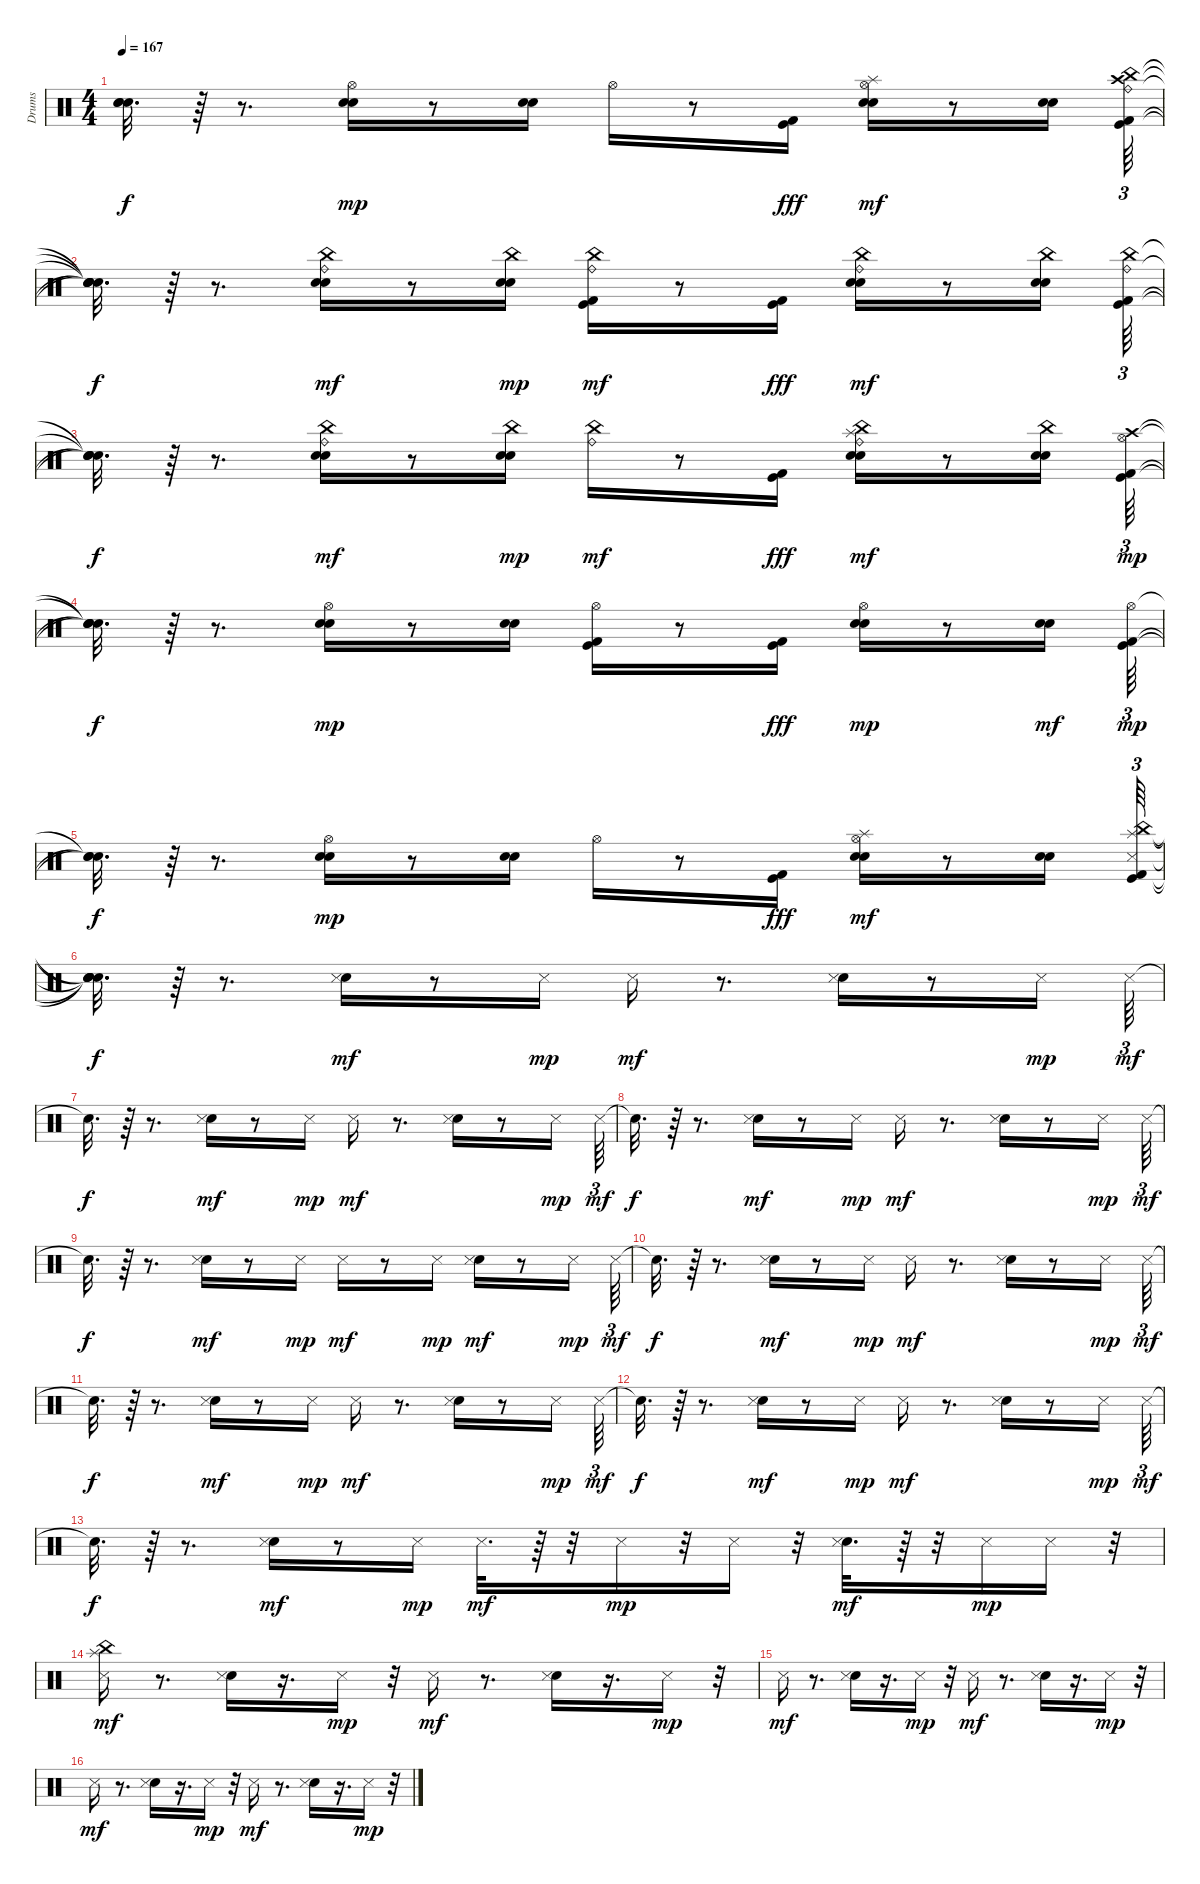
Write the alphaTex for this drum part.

\track ("Drums" "Drums") {instrument percussion}
\staff {score}
\articulation defaults
\ts (4 4)
\tempo 167
\clef neutral
\ks c
("Snare (hit)"{t} "Snare (hit)"{t} "Snare (hit)"{t}).32{d dy f} r.64 r.8{d} ("Snare (hit) 2" "Hand Clap (hit)" "Hi-Hat (open)").16{dy mp} r.8 ("Snare (hit) 2" "Hand Clap (hit)").16 "Hi-Hat (open)".16 r.8 ("Kick (hit) 2" "Kick (hit)").16{dy fff} ("Snare (hit) 2" "Hand Clap (hit)" "Hi-Hat (open)" "Splash (hit)").16{dy mf} r.8 ("Snare (hit) 2" "Hand Clap (hit)").16 ("Kick (hit) 2" "Kick (hit)" "China (hit)" "Ride (bell)" "Crash high (hit)").64{tu (3 2)} |
("Snare (hit)"{t} "Snare (hit)"{t} "Snare (hit)"{t} "Snare (hit)"{t} "Snare (hit)"{t}).32{d dy f} r.64 r.8{d} ("Snare (hit) 2" "Hand Clap (hit)" "China (hit)" "Ride (bell)").16{dy mf} r.8 ("Snare (hit) 2" "Hand Clap (hit)" "China (hit)").16{dy mp} ("Kick (hit) 2" "Kick (hit)" "China (hit)" "Ride (bell)").16{dy mf} r.8 ("Kick (hit) 2" "Kick (hit)").16{dy fff} ("Snare (hit) 2" "Hand Clap (hit)" "China (hit)" "Ride (bell)").16{dy mf} r.8 ("Snare (hit) 2" "China (hit)" "Hand Clap (hit)").16 ("Kick (hit) 2" "Kick (hit)" "China (hit)" "Ride (bell)").64{tu (3 2)} |
("Snare (hit)"{t} "Snare (hit)"{t} "Snare (hit)"{t} "Snare (hit)"{t}).32{d dy f} r.64 r.8{d} ("Snare (hit) 2" "Hand Clap (hit)" "China (hit)" "Ride (bell)").16{dy mf} r.8 ("Snare (hit) 2" "Hand Clap (hit)" "China (hit)").16{dy mp} ("China (hit)" "Ride (bell)").16{dy mf} r.8 ("Kick (hit) 2" "Kick (hit)").16{dy fff} ("Snare (hit) 2" "Hand Clap (hit)" "China (hit)" "Ride (bell)" "Splash (hit)").16{dy mf} r.8 ("Snare (hit) 2" "China (hit)" "Hand Clap (hit)").16 ("Kick (hit) 2" "Kick (hit)" "Crash high (hit)" "Hi-Hat (open)").64{tu (3 2) dy mp} |
("Snare (hit)"{t} "Snare (hit)"{t} "Snare (hit)"{t} "Snare (hit)"{t}).32{d dy f} r.64 r.8{d} ("Snare (hit) 2" "Hand Clap (hit)" "Hi-Hat (open)").16{dy mp} r.8 ("Snare (hit) 2" "Hand Clap (hit)").16 ("Kick (hit) 2" "Kick (hit)" "Hi-Hat (open)").16 r.8 ("Kick (hit) 2" "Kick (hit)").16{dy fff} ("Snare (hit) 2" "Hand Clap (hit)" "Hi-Hat (open)").16{dy mp} r.8 ("Snare (hit) 2" "Hand Clap (hit)").16{dy mf} ("Kick (hit) 2" "Kick (hit)" "Hi-Hat (open)").64{tu (3 2) dy mp} |
("Snare (hit)"{t} "Snare (hit)"{t} "Snare (hit)"{t}).32{d dy f} r.64 r.8{d} ("Snare (hit) 2" "Hand Clap (hit)" "Hi-Hat (open)").16{dy mp} r.8 ("Snare (hit) 2" "Hand Clap (hit)").16 "Hi-Hat (open)".16 r.8 ("Kick (hit) 2" "Kick (hit)").16{dy fff} ("Snare (hit) 2" "Hand Clap (hit)" "Hi-Hat (open)" "Splash (hit)").16{dy mf} r.8 ("Snare (hit) 2" "Hand Clap (hit)").16 ("Kick (hit) 2" "Kick (hit)" "Splash (hit)" "China (hit)" "Snare (side stick) 3").64{tu (3 2)} |
("Snare (hit)"{t} "Snare (hit)"{t} "Snare (hit)"{t} "Snare (hit)"{t} "Snare (hit)"{t}).32{d dy f} r.64 r.8{d} ("Hand Clap (hit)" "Snare (side stick) 3").16{dy mf} r.8 "Snare (side stick) 3".16{dy mp} "Snare (side stick) 3".16{dy mf} r.8{d} ("Hand Clap (hit)" "Snare (side stick) 3").16 r.8 "Snare (side stick) 3".16{dy mp} "Snare (side stick) 3".64{tu (3 2) dy mf} |
"Snare (hit)"{t}.32{d dy f} r.64 r.8{d} ("Hand Clap (hit)" "Snare (side stick) 3").16{dy mf} r.8 "Snare (side stick) 3".16{dy mp} "Snare (side stick) 3".16{dy mf} r.8{d} ("Hand Clap (hit)" "Snare (side stick) 3").16 r.8 "Snare (side stick) 3".16{dy mp} "Snare (side stick) 3".64{tu (3 2) dy mf} |
"Snare (hit)"{t}.32{d dy f} r.64 r.8{d} ("Hand Clap (hit)" "Snare (side stick) 3").16{dy mf} r.8 "Snare (side stick) 3".16{dy mp} "Snare (side stick) 3".16{dy mf} r.8{d} ("Hand Clap (hit)" "Snare (side stick) 3").16 r.8 "Snare (side stick) 3".16{dy mp} "Snare (side stick) 3".64{tu (3 2) dy mf} |
"Snare (hit)"{t}.32{d dy f} r.64 r.8{d} ("Hand Clap (hit)" "Snare (side stick) 3").16{dy mf} r.8 "Snare (side stick) 3".16{dy mp} "Snare (side stick) 3".16{dy mf} r.8 "Snare (side stick) 3".16{dy mp} ("Hand Clap (hit)" "Snare (side stick) 3").16{dy mf} r.8 "Snare (side stick) 3".16{dy mp} "Snare (side stick) 3".64{tu (3 2) dy mf} |
"Snare (hit)"{t}.32{d dy f} r.64 r.8{d} ("Hand Clap (hit)" "Snare (side stick) 3").16{dy mf} r.8 "Snare (side stick) 3".16{dy mp} "Snare (side stick) 3".16{dy mf} r.8{d} ("Hand Clap (hit)" "Snare (side stick) 3").16 r.8 "Snare (side stick) 3".16{dy mp} "Snare (side stick) 3".64{tu (3 2) dy mf} |
"Snare (hit)"{t}.32{d dy f} r.64 r.8{d} ("Hand Clap (hit)" "Snare (side stick) 3").16{dy mf} r.8 "Snare (side stick) 3".16{dy mp} "Snare (side stick) 3".16{dy mf} r.8{d} ("Hand Clap (hit)" "Snare (side stick) 3").16 r.8 "Snare (side stick) 3".16{dy mp} "Snare (side stick) 3".64{tu (3 2) dy mf} |
"Snare (hit)"{t}.32{d dy f} r.64 r.8{d} ("Hand Clap (hit)" "Snare (side stick) 3").16{dy mf} r.8 "Snare (side stick) 3".16{dy mp} "Snare (side stick) 3".16{dy mf} r.8{d} ("Hand Clap (hit)" "Snare (side stick) 3").16 r.8 "Snare (side stick) 3".16{dy mp} "Snare (side stick) 3".64{tu (3 2) dy mf} |
"Snare (hit)"{t}.32{d dy f} r.64 r.8{d} ("Hand Clap (hit)" "Snare (side stick) 3").16{dy mf} r.8 "Snare (side stick) 3".16{dy mp} "Snare (side stick) 3".32{d dy mf} r.64 r.32 "Snare (side stick) 3".16{dy mp} r.32 "Snare (side stick) 3".16 r.32 ("Hand Clap (hit)" "Snare (side stick) 3").32{d dy mf} r.64 r.32 "Snare (side stick) 3".16{dy mp} "Snare (side stick) 3".16 r.32 |
("Splash (hit)" "China (hit)" "Snare (side stick) 3").16{dy mf} r.8{d} ("Hand Clap (hit)" "Snare (side stick) 3").16 r.16{d} "Snare (side stick) 3".16{dy mp} r.32 "Snare (side stick) 3".16{dy mf} r.8{d} ("Hand Clap (hit)" "Snare (side stick) 3").16 r.16{d} "Snare (side stick) 3".16{dy mp} r.32 |
"Snare (side stick) 3".16{dy mf} r.8{d} ("Hand Clap (hit)" "Snare (side stick) 3").16 r.16{d} "Snare (side stick) 3".16{dy mp} r.32 "Snare (side stick) 3".16{dy mf} r.8{d} ("Hand Clap (hit)" "Snare (side stick) 3").16 r.16{d} "Snare (side stick) 3".16{dy mp} r.32 |
"Snare (side stick) 3".16{dy mf} r.8{d} ("Hand Clap (hit)" "Snare (side stick) 3").16 r.16{d} "Snare (side stick) 3".16{dy mp} r.32 "Snare (side stick) 3".16{dy mf} r.8{d} ("Hand Clap (hit)" "Snare (side stick) 3").16 r.16{d} "Snare (side stick) 3".16{dy mp} r.32
